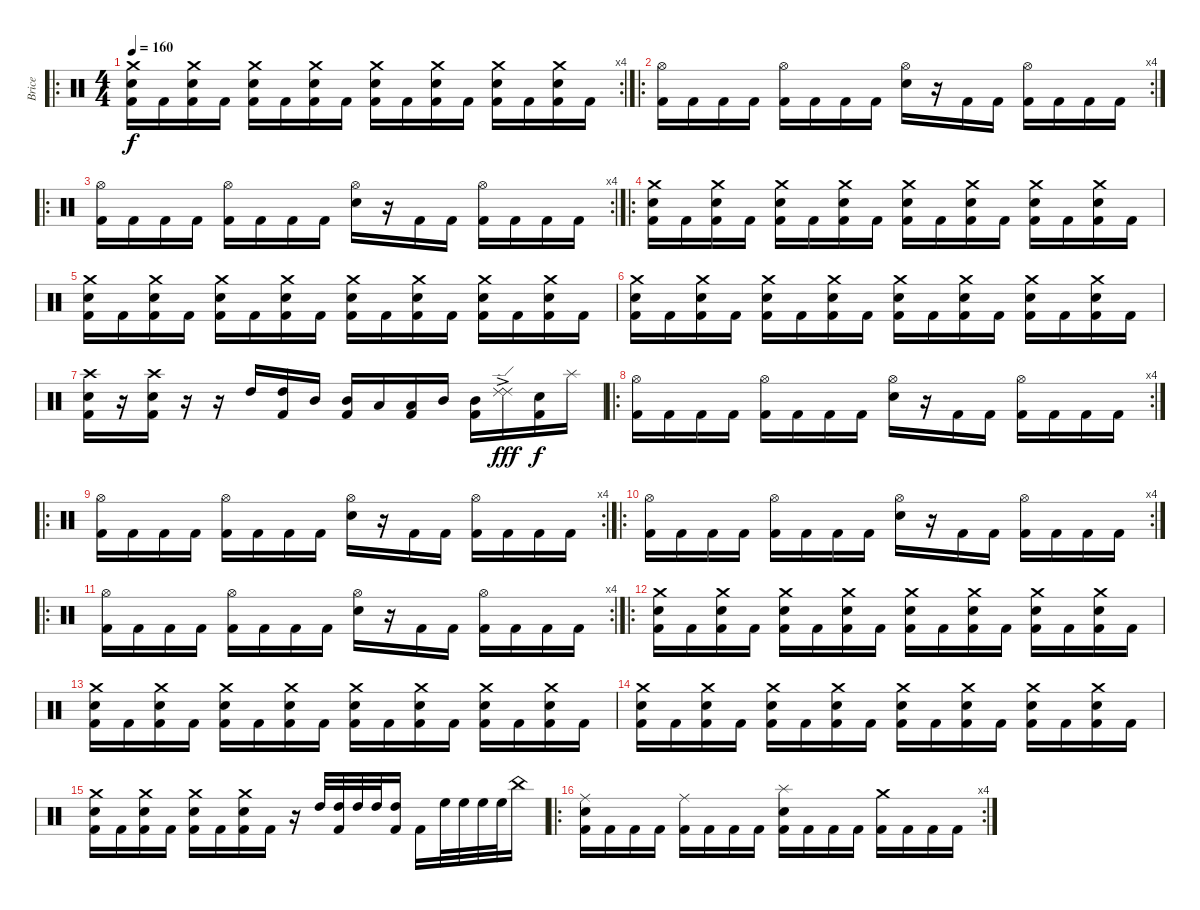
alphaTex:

\track ("Brice" "Brice") {instrument percussion}
\staff {score}
\articulation defaults
\ro
\rc 4
\ts (4 4)
\tempo 160
\clef neutral
\ks c
("Crash medium (hit)" "Electric Snare (hit)" "Kick (hit) 2").16{dy f} "Kick (hit) 2".16 ("Crash medium (hit)" "Electric Snare (hit)" "Kick (hit) 2").16 "Kick (hit) 2".16 ("Crash medium (hit)" "Electric Snare (hit)" "Kick (hit) 2").16 "Kick (hit) 2".16 ("Crash medium (hit)" "Electric Snare (hit)" "Kick (hit) 2").16 "Kick (hit) 2".16 ("Crash medium (hit)" "Electric Snare (hit)" "Kick (hit) 2").16 "Kick (hit) 2".16 ("Crash medium (hit)" "Electric Snare (hit)" "Kick (hit) 2").16 "Kick (hit) 2".16 ("Crash medium (hit)" "Electric Snare (hit)" "Kick (hit) 2").16 "Kick (hit) 2".16 ("Crash medium (hit)" "Electric Snare (hit)" "Kick (hit) 2").16 "Kick (hit) 2".16 |
\ro
\rc 4
("Hi-Hat (open)" "Kick (hit) 2").16 "Kick (hit) 2".16 "Kick (hit) 2".16 "Kick (hit) 2".16 ("Hi-Hat (open)" "Kick (hit) 2").16 "Kick (hit) 2".16 "Kick (hit) 2".16 "Kick (hit) 2".16 ("Hi-Hat (open)" "Electric Snare (hit)").16 r.16 "Kick (hit) 2".16 "Kick (hit) 2".16 ("Hi-Hat (open)" "Kick (hit) 2").16 "Kick (hit) 2".16 "Kick (hit) 2".16 "Kick (hit) 2".16 |
\ro
\rc 4
("Hi-Hat (open)" "Kick (hit) 2").16 "Kick (hit) 2".16 "Kick (hit) 2".16 "Kick (hit) 2".16 ("Hi-Hat (open)" "Kick (hit) 2").16 "Kick (hit) 2".16 "Kick (hit) 2".16 "Kick (hit) 2".16 ("Hi-Hat (open)" "Electric Snare (hit)").16 r.16 "Kick (hit) 2".16 "Kick (hit) 2".16 ("Hi-Hat (open)" "Kick (hit) 2").16 "Kick (hit) 2".16 "Kick (hit) 2".16 "Kick (hit) 2".16 |
\ro
("Crash medium (hit)" "Electric Snare (hit)" "Kick (hit) 2").16 "Kick (hit) 2".16 ("Crash medium (hit)" "Electric Snare (hit)" "Kick (hit) 2").16 "Kick (hit) 2".16 ("Crash medium (hit)" "Electric Snare (hit)" "Kick (hit) 2").16 "Kick (hit) 2".16 ("Crash medium (hit)" "Electric Snare (hit)" "Kick (hit) 2").16 "Kick (hit) 2".16 ("Crash medium (hit)" "Electric Snare (hit)" "Kick (hit) 2").16 "Kick (hit) 2".16 ("Crash medium (hit)" "Electric Snare (hit)" "Kick (hit) 2").16 "Kick (hit) 2".16 ("Crash medium (hit)" "Electric Snare (hit)" "Kick (hit) 2").16 "Kick (hit) 2".16 ("Crash medium (hit)" "Electric Snare (hit)" "Kick (hit) 2").16 "Kick (hit) 2".16 |
("Crash medium (hit)" "Electric Snare (hit)" "Kick (hit) 2").16 "Kick (hit) 2".16 ("Crash medium (hit)" "Electric Snare (hit)" "Kick (hit) 2").16 "Kick (hit) 2".16 ("Crash medium (hit)" "Electric Snare (hit)" "Kick (hit) 2").16 "Kick (hit) 2".16 ("Crash medium (hit)" "Electric Snare (hit)" "Kick (hit) 2").16 "Kick (hit) 2".16 ("Crash medium (hit)" "Electric Snare (hit)" "Kick (hit) 2").16 "Kick (hit) 2".16 ("Crash medium (hit)" "Electric Snare (hit)" "Kick (hit) 2").16 "Kick (hit) 2".16 ("Crash medium (hit)" "Electric Snare (hit)" "Kick (hit) 2").16 "Kick (hit) 2".16 ("Crash medium (hit)" "Electric Snare (hit)" "Kick (hit) 2").16 "Kick (hit) 2".16 |
("Crash medium (hit)" "Electric Snare (hit)" "Kick (hit) 2").16 "Kick (hit) 2".16 ("Crash medium (hit)" "Electric Snare (hit)" "Kick (hit) 2").16 "Kick (hit) 2".16 ("Crash medium (hit)" "Electric Snare (hit)" "Kick (hit) 2").16 "Kick (hit) 2".16 ("Crash medium (hit)" "Electric Snare (hit)" "Kick (hit) 2").16 "Kick (hit) 2".16 ("Crash medium (hit)" "Electric Snare (hit)" "Kick (hit) 2").16 "Kick (hit) 2".16 ("Crash medium (hit)" "Electric Snare (hit)" "Kick (hit) 2").16 "Kick (hit) 2".16 ("Crash medium (hit)" "Electric Snare (hit)" "Kick (hit) 2").16 "Kick (hit) 2".16 ("Crash medium (hit)" "Electric Snare (hit)" "Kick (hit) 2").16 "Kick (hit) 2".16 |
("Crash high (hit)" "Electric Snare (hit)" "Kick (hit) 2").16 r.16 ("Crash high (hit)" "Electric Snare (hit)" "Kick (hit) 2").16 r.16 r.16 "High Tom (hit)".16 ("High Tom (hit)" "Kick (hit) 2").16 "Mid Tom (hit)".16 ("Mid Tom (hit)" "Kick (hit) 2").16 "Low Tom (hit)".16 ("Low Tom (hit)" "Kick (hit) 2").16 "Mid Tom (hit)".16 ("Mid Tom (hit)" "Kick (hit) 2").16 ("Ride (edge) 2"{ac} "Ride (edge) 2"{ac}).16{dy fff} ("Electric Snare (hit)" "Kick (hit) 2").16{dy f} "Splash (hit)".16 |
\ro
\rc 4
("Hi-Hat (open)" "Kick (hit) 2").16 "Kick (hit) 2".16 "Kick (hit) 2".16 "Kick (hit) 2".16 ("Hi-Hat (open)" "Kick (hit) 2").16 "Kick (hit) 2".16 "Kick (hit) 2".16 "Kick (hit) 2".16 ("Hi-Hat (open)" "Electric Snare (hit)").16 r.16 "Kick (hit) 2".16 "Kick (hit) 2".16 ("Hi-Hat (open)" "Kick (hit) 2").16 "Kick (hit) 2".16 "Kick (hit) 2".16 "Kick (hit) 2".16 |
\ro
\rc 4
("Hi-Hat (open)" "Kick (hit) 2").16 "Kick (hit) 2".16 "Kick (hit) 2".16 "Kick (hit) 2".16 ("Hi-Hat (open)" "Kick (hit) 2").16 "Kick (hit) 2".16 "Kick (hit) 2".16 "Kick (hit) 2".16 ("Hi-Hat (open)" "Electric Snare (hit)").16 r.16 "Kick (hit) 2".16 "Kick (hit) 2".16 ("Hi-Hat (open)" "Kick (hit) 2").16 "Kick (hit) 2".16 "Kick (hit) 2".16 "Kick (hit) 2".16 |
\ro
\rc 4
("Hi-Hat (open)" "Kick (hit) 2").16 "Kick (hit) 2".16 "Kick (hit) 2".16 "Kick (hit) 2".16 ("Hi-Hat (open)" "Kick (hit) 2").16 "Kick (hit) 2".16 "Kick (hit) 2".16 "Kick (hit) 2".16 ("Hi-Hat (open)" "Electric Snare (hit)").16 r.16 "Kick (hit) 2".16 "Kick (hit) 2".16 ("Hi-Hat (open)" "Kick (hit) 2").16 "Kick (hit) 2".16 "Kick (hit) 2".16 "Kick (hit) 2".16 |
\ro
\rc 4
("Hi-Hat (open)" "Kick (hit) 2").16 "Kick (hit) 2".16 "Kick (hit) 2".16 "Kick (hit) 2".16 ("Hi-Hat (open)" "Kick (hit) 2").16 "Kick (hit) 2".16 "Kick (hit) 2".16 "Kick (hit) 2".16 ("Hi-Hat (open)" "Electric Snare (hit)").16 r.16 "Kick (hit) 2".16 "Kick (hit) 2".16 ("Hi-Hat (open)" "Kick (hit) 2").16 "Kick (hit) 2".16 "Kick (hit) 2".16 "Kick (hit) 2".16 |
\ro
("Crash medium (hit)" "Electric Snare (hit)" "Kick (hit) 2").16 "Kick (hit) 2".16 ("Crash medium (hit)" "Electric Snare (hit)" "Kick (hit) 2").16 "Kick (hit) 2".16 ("Crash medium (hit)" "Electric Snare (hit)" "Kick (hit) 2").16 "Kick (hit) 2".16 ("Crash medium (hit)" "Electric Snare (hit)" "Kick (hit) 2").16 "Kick (hit) 2".16 ("Crash medium (hit)" "Electric Snare (hit)" "Kick (hit) 2").16 "Kick (hit) 2".16 ("Crash medium (hit)" "Electric Snare (hit)" "Kick (hit) 2").16 "Kick (hit) 2".16 ("Crash medium (hit)" "Electric Snare (hit)" "Kick (hit) 2").16 "Kick (hit) 2".16 ("Crash medium (hit)" "Electric Snare (hit)" "Kick (hit) 2").16 "Kick (hit) 2".16 |
("Crash medium (hit)" "Electric Snare (hit)" "Kick (hit) 2").16 "Kick (hit) 2".16 ("Crash medium (hit)" "Electric Snare (hit)" "Kick (hit) 2").16 "Kick (hit) 2".16 ("Crash medium (hit)" "Electric Snare (hit)" "Kick (hit) 2").16 "Kick (hit) 2".16 ("Crash medium (hit)" "Electric Snare (hit)" "Kick (hit) 2").16 "Kick (hit) 2".16 ("Crash medium (hit)" "Electric Snare (hit)" "Kick (hit) 2").16 "Kick (hit) 2".16 ("Crash medium (hit)" "Electric Snare (hit)" "Kick (hit) 2").16 "Kick (hit) 2".16 ("Crash medium (hit)" "Electric Snare (hit)" "Kick (hit) 2").16 "Kick (hit) 2".16 ("Crash medium (hit)" "Electric Snare (hit)" "Kick (hit) 2").16 "Kick (hit) 2".16 |
("Crash medium (hit)" "Electric Snare (hit)" "Kick (hit) 2").16 "Kick (hit) 2".16 ("Crash medium (hit)" "Electric Snare (hit)" "Kick (hit) 2").16 "Kick (hit) 2".16 ("Crash medium (hit)" "Electric Snare (hit)" "Kick (hit) 2").16 "Kick (hit) 2".16 ("Crash medium (hit)" "Electric Snare (hit)" "Kick (hit) 2").16 "Kick (hit) 2".16 ("Crash medium (hit)" "Electric Snare (hit)" "Kick (hit) 2").16 "Kick (hit) 2".16 ("Crash medium (hit)" "Electric Snare (hit)" "Kick (hit) 2").16 "Kick (hit) 2".16 ("Crash medium (hit)" "Electric Snare (hit)" "Kick (hit) 2").16 "Kick (hit) 2".16 ("Crash medium (hit)" "Electric Snare (hit)" "Kick (hit) 2").16 "Kick (hit) 2".16 |
("Crash medium (hit)" "Electric Snare (hit)" "Kick (hit) 2").16 "Kick (hit) 2".16 ("Crash medium (hit)" "Electric Snare (hit)" "Kick (hit) 2").16 "Kick (hit) 2".16 ("Crash medium (hit)" "Electric Snare (hit)" "Kick (hit) 2").16 "Kick (hit) 2".16 ("Crash medium (hit)" "Electric Snare (hit)" "Kick (hit) 2").16 "Kick (hit) 2".16 r.16 "High Tom (hit)".32 ("High Tom (hit)" "Kick (hit) 2").32 "High Tom (hit)".32 "High Tom (hit)".32 ("High Tom (hit)" "Kick (hit) 2").16 "Kick (hit) 2".16 "High Floor Tom (hit)".32 "High Floor Tom (hit)".32 "High Floor Tom (hit)".32 "High Floor Tom (hit)".32 "China (hit)".16 |
\ro
\rc 4
("Ride (middle)" "Electric Snare (hit)" "Kick (hit) 2").16 "Kick (hit) 2".16 "Kick (hit) 2".16 "Kick (hit) 2".16 ("Ride (middle)" "Kick (hit) 2").16 "Kick (hit) 2".16 "Kick (hit) 2".16 "Kick (hit) 2".16 ("Splash (hit)" "Electric Snare (hit)" "Kick (hit) 2").16 "Kick (hit) 2".16 "Kick (hit) 2".16 "Kick (hit) 2".16 ("Crash medium (hit)" "Kick (hit) 2").16 "Kick (hit) 2".16 "Kick (hit) 2".16 "Kick (hit) 2".16
